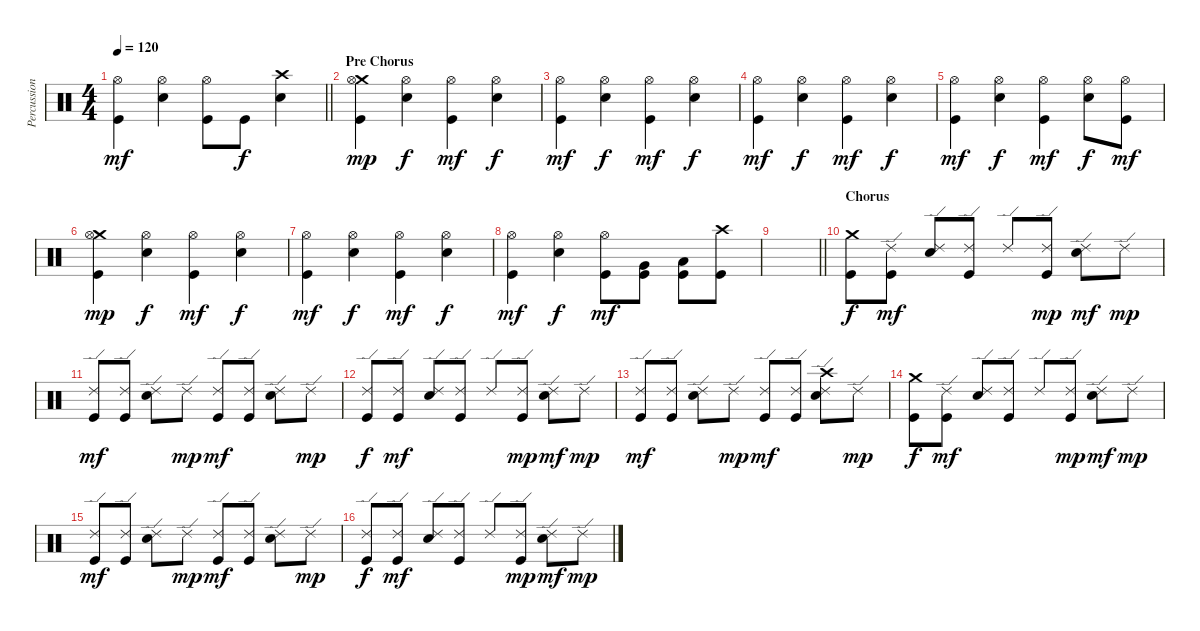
\track ("Percussion" "Percussion") {instrument percussion}
\staff {score}
\articulation defaults
\ts (4 4)
\tempo 120
\clef neutral
\barLineRight lightlight
\ks c
("Hi-Hat (open)" "Kick (hit)").4{dy mf} ("Hi-Hat (open)" "Electric Snare (hit)").4 ("Hi-Hat (open)" "Kick (hit)").8 "Kick (hit)".8{dy f} ("Crash high (hit)" "Electric Snare (hit)").4 |
\section ("" "Pre Chorus")
("Crash medium (hit)" "Hi-Hat (open)" "Kick (hit)").4{dy mp} ("Hi-Hat (open)" "Electric Snare (hit)").4{dy f} ("Hi-Hat (open)" "Kick (hit)").4{dy mf} ("Hi-Hat (open)" "Electric Snare (hit)").4{dy f} |
("Hi-Hat (open)" "Kick (hit)").4{dy mf} ("Hi-Hat (open)" "Electric Snare (hit)").4{dy f} ("Hi-Hat (open)" "Kick (hit)").4{dy mf} ("Hi-Hat (open)" "Electric Snare (hit)").4{dy f} |
("Hi-Hat (open)" "Kick (hit)").4{dy mf} ("Hi-Hat (open)" "Electric Snare (hit)").4{dy f} ("Hi-Hat (open)" "Kick (hit)").4{dy mf} ("Hi-Hat (open)" "Electric Snare (hit)").4{dy f} |
("Hi-Hat (open)" "Kick (hit)").4{dy mf} ("Hi-Hat (open)" "Electric Snare (hit)").4{dy f} ("Hi-Hat (open)" "Kick (hit)").4{dy mf} ("Hi-Hat (open)" "Electric Snare (hit)").8{dy f} ("Hi-Hat (open)" "Kick (hit)").8{dy mf} |
("Crash medium (hit)" "Hi-Hat (open)" "Kick (hit)").4{dy mp} ("Hi-Hat (open)" "Electric Snare (hit)").4{dy f} ("Hi-Hat (open)" "Kick (hit)").4{dy mf} ("Hi-Hat (open)" "Electric Snare (hit)").4{dy f} |
("Hi-Hat (open)" "Kick (hit)").4{dy mf} ("Hi-Hat (open)" "Electric Snare (hit)").4{dy f} ("Hi-Hat (open)" "Kick (hit)").4{dy mf} ("Hi-Hat (open)" "Electric Snare (hit)").4{dy f} |
("Hi-Hat (open)" "Kick (hit)").4{dy mf} ("Hi-Hat (open)" "Electric Snare (hit)").4{dy f} ("Hi-Hat (open)" "Kick (hit)").8{dy mf} ("Very Low Tom (hit)" "Kick (hit)").8 ("Low Floor Tom (hit)" "Kick (hit)").8 ("Crash high (hit)" "Kick (hit)").8 |
\barLineRight lightlight
|
\section ("" "Chorus")
("Crash medium (hit)" "Kick (hit)").8{dy f} ("Ride (edge) 2" "Kick (hit)").8{dy mf} ("Ride (edge) 2" "Electric Snare (hit)").8 ("Ride (edge) 2" "Kick (hit)").8 "Ride (edge) 2".8 ("Ride (edge) 2" "Kick (hit)").8{dy mp} ("Ride (edge) 2" "Electric Snare (hit)").8{dy mf} "Ride (edge) 2".8{dy mp} |
("Ride (edge) 2" "Kick (hit)").8{dy mf} ("Ride (edge) 2" "Kick (hit)").8 ("Ride (edge) 2" "Electric Snare (hit)").8 "Ride (edge) 2".8{dy mp} ("Ride (edge) 2" "Kick (hit)").8{dy mf} ("Ride (edge) 2" "Kick (hit)").8 ("Ride (edge) 2" "Electric Snare (hit)").8 "Ride (edge) 2".8{dy mp} |
("Ride (edge) 2" "Kick (hit)").8{dy f} ("Ride (edge) 2" "Kick (hit)").8{dy mf} ("Ride (edge) 2" "Electric Snare (hit)").8 ("Ride (edge) 2" "Kick (hit)").8 "Ride (edge) 2".8 ("Ride (edge) 2" "Kick (hit)").8{dy mp} ("Ride (edge) 2" "Electric Snare (hit)").8{dy mf} "Ride (edge) 2".8{dy mp} |
("Ride (edge) 2" "Kick (hit)").8{dy mf} ("Ride (edge) 2" "Kick (hit)").8 ("Ride (edge) 2" "Electric Snare (hit)").8 "Ride (edge) 2".8{dy mp} ("Ride (edge) 2" "Kick (hit)").8{dy mf} ("Ride (edge) 2" "Kick (hit)").8 ("Ride (edge) 2" "Crash high (hit)" "Electric Snare (hit)").8 "Ride (edge) 2".8{dy mp} |
("Crash medium (hit)" "Kick (hit)").8{dy f} ("Ride (edge) 2" "Kick (hit)").8{dy mf} ("Ride (edge) 2" "Electric Snare (hit)").8 ("Ride (edge) 2" "Kick (hit)").8 "Ride (edge) 2".8 ("Ride (edge) 2" "Kick (hit)").8{dy mp} ("Ride (edge) 2" "Electric Snare (hit)").8{dy mf} "Ride (edge) 2".8{dy mp} |
("Ride (edge) 2" "Kick (hit)").8{dy mf} ("Ride (edge) 2" "Kick (hit)").8 ("Ride (edge) 2" "Electric Snare (hit)").8 "Ride (edge) 2".8{dy mp} ("Ride (edge) 2" "Kick (hit)").8{dy mf} ("Ride (edge) 2" "Kick (hit)").8 ("Ride (edge) 2" "Electric Snare (hit)").8 "Ride (edge) 2".8{dy mp} |
("Ride (edge) 2" "Kick (hit)").8{dy f} ("Ride (edge) 2" "Kick (hit)").8{dy mf} ("Ride (edge) 2" "Electric Snare (hit)").8 ("Ride (edge) 2" "Kick (hit)").8 "Ride (edge) 2".8 ("Ride (edge) 2" "Kick (hit)").8{dy mp} ("Ride (edge) 2" "Electric Snare (hit)").8{dy mf} "Ride (edge) 2".8{dy mp}
